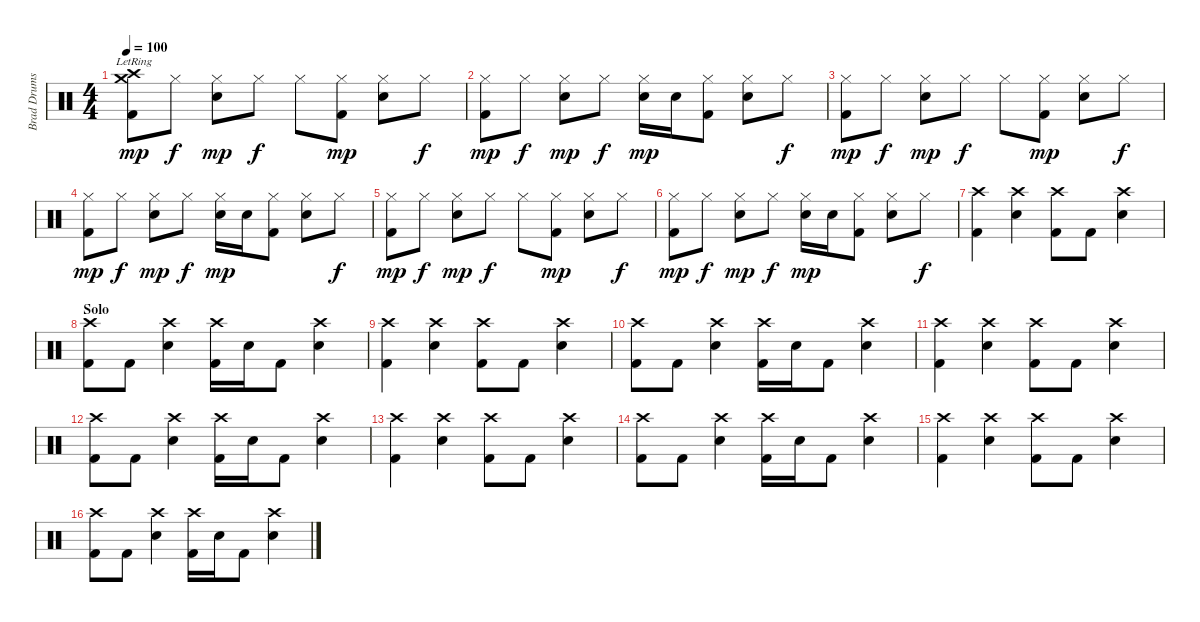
\track ("Brad Drums" "Brad Drums") {instrument percussion}
\staff {score}
\articulation defaults
\ts (4 4)
\tempo 100
\clef neutral
\ks c
("Crash high (hit)"{lr} "Crash medium (hit)"{lr} "Kick (hit) 2").8{dy mp} "Hi-Hat (closed)".8{dy f} ("Hi-Hat (closed)" "Snare (hit) 2").8{dy mp} "Hi-Hat (closed)".8{dy f} "Hi-Hat (closed)".8 ("Hi-Hat (closed)" "Kick (hit) 2").8{dy mp} ("Hi-Hat (closed)" "Snare (hit) 2").8 "Hi-Hat (closed)".8{dy f} |
("Hi-Hat (closed)" "Kick (hit) 2").8{dy mp} "Hi-Hat (closed)".8{dy f} ("Hi-Hat (closed)" "Snare (hit) 2").8{dy mp} "Hi-Hat (closed)".8{dy f} ("Hi-Hat (closed)" "Snare (hit) 2").16{dy mp} "Snare (hit) 2".16 ("Hi-Hat (closed)" "Kick (hit) 2").8 ("Hi-Hat (closed)" "Snare (hit) 2").8 "Hi-Hat (closed)".8{dy f} |
("Hi-Hat (closed)" "Kick (hit) 2").8{dy mp} "Hi-Hat (closed)".8{dy f} ("Hi-Hat (closed)" "Snare (hit) 2").8{dy mp} "Hi-Hat (closed)".8{dy f} "Hi-Hat (closed)".8 ("Hi-Hat (closed)" "Kick (hit) 2").8{dy mp} ("Hi-Hat (closed)" "Snare (hit) 2").8 "Hi-Hat (closed)".8{dy f} |
("Hi-Hat (closed)" "Kick (hit) 2").8{dy mp} "Hi-Hat (closed)".8{dy f} ("Hi-Hat (closed)" "Snare (hit) 2").8{dy mp} "Hi-Hat (closed)".8{dy f} ("Hi-Hat (closed)" "Snare (hit) 2").16{dy mp} "Snare (hit) 2".16 ("Hi-Hat (closed)" "Kick (hit) 2").8 ("Hi-Hat (closed)" "Snare (hit) 2").8 "Hi-Hat (closed)".8{dy f} |
("Hi-Hat (closed)" "Kick (hit) 2").8{dy mp} "Hi-Hat (closed)".8{dy f} ("Hi-Hat (closed)" "Snare (hit) 2").8{dy mp} "Hi-Hat (closed)".8{dy f} "Hi-Hat (closed)".8 ("Hi-Hat (closed)" "Kick (hit) 2").8{dy mp} ("Hi-Hat (closed)" "Snare (hit) 2").8 "Hi-Hat (closed)".8{dy f} |
("Hi-Hat (closed)" "Kick (hit) 2").8{dy mp} "Hi-Hat (closed)".8{dy f} ("Hi-Hat (closed)" "Snare (hit) 2").8{dy mp} "Hi-Hat (closed)".8{dy f} ("Hi-Hat (closed)" "Snare (hit) 2").16{dy mp} "Snare (hit) 2".16 ("Hi-Hat (closed)" "Kick (hit) 2").8 ("Hi-Hat (closed)" "Snare (hit) 2").8 "Hi-Hat (closed)".8{dy f} |
("Crash high (hit)" "Kick (hit) 2").4 ("Crash high (hit)" "Electric Snare (hit)").4 ("Crash high (hit)" "Kick (hit) 2").8 "Kick (hit) 2".8 ("Crash high (hit)" "Electric Snare (hit)").4 |
\section ("" "Solo")
("Crash high (hit)" "Kick (hit) 2").8 "Kick (hit) 2".8 ("Crash high (hit)" "Electric Snare (hit)").4 ("Crash high (hit)" "Kick (hit) 2").16 "Electric Snare (hit)".16 "Kick (hit) 2".8 ("Crash high (hit)" "Electric Snare (hit)").4 |
("Crash high (hit)" "Kick (hit) 2").4 ("Crash high (hit)" "Electric Snare (hit)").4 ("Crash high (hit)" "Kick (hit) 2").8 "Kick (hit) 2".8 ("Crash high (hit)" "Electric Snare (hit)").4 |
("Crash high (hit)" "Kick (hit) 2").8 "Kick (hit) 2".8 ("Crash high (hit)" "Electric Snare (hit)").4 ("Crash high (hit)" "Kick (hit) 2").16 "Electric Snare (hit)".16 "Kick (hit) 2".8 ("Crash high (hit)" "Electric Snare (hit)").4 |
("Crash high (hit)" "Kick (hit) 2").4 ("Crash high (hit)" "Electric Snare (hit)").4 ("Crash high (hit)" "Kick (hit) 2").8 "Kick (hit) 2".8 ("Crash high (hit)" "Electric Snare (hit)").4 |
("Crash high (hit)" "Kick (hit) 2").8 "Kick (hit) 2".8 ("Crash high (hit)" "Electric Snare (hit)").4 ("Crash high (hit)" "Kick (hit) 2").16 "Electric Snare (hit)".16 "Kick (hit) 2".8 ("Crash high (hit)" "Electric Snare (hit)").4 |
("Crash high (hit)" "Kick (hit) 2").4 ("Crash high (hit)" "Electric Snare (hit)").4 ("Crash high (hit)" "Kick (hit) 2").8 "Kick (hit) 2".8 ("Crash high (hit)" "Electric Snare (hit)").4 |
("Crash high (hit)" "Kick (hit) 2").8 "Kick (hit) 2".8 ("Crash high (hit)" "Electric Snare (hit)").4 ("Crash high (hit)" "Kick (hit) 2").16 "Electric Snare (hit)".16 "Kick (hit) 2".8 ("Crash high (hit)" "Electric Snare (hit)").4 |
("Crash high (hit)" "Kick (hit) 2").4 ("Crash high (hit)" "Electric Snare (hit)").4 ("Crash high (hit)" "Kick (hit) 2").8 "Kick (hit) 2".8 ("Crash high (hit)" "Electric Snare (hit)").4 |
("Crash high (hit)" "Kick (hit) 2").8 "Kick (hit) 2".8 ("Crash high (hit)" "Electric Snare (hit)").4 ("Crash high (hit)" "Kick (hit) 2").16 "Electric Snare (hit)".16 "Kick (hit) 2".8 ("Crash high (hit)" "Electric Snare (hit)").4
